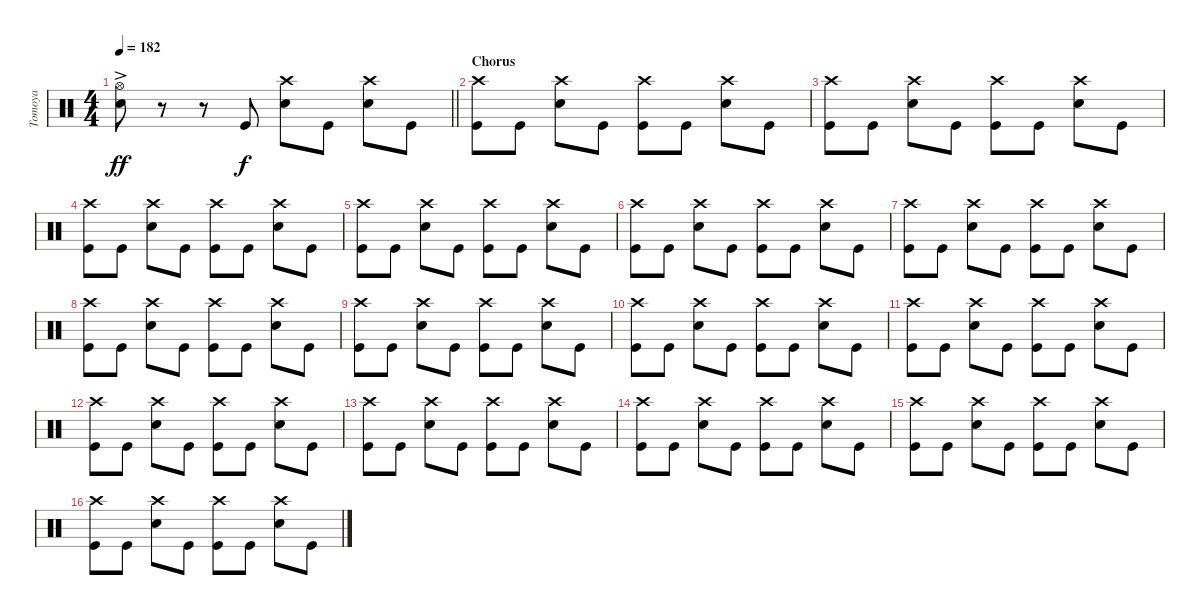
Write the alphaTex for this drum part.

\track ("Tomoya" "Tomoya") {instrument percussion}
\staff {score}
\articulation defaults
\ts (4 4)
\tempo 182
\clef neutral
\barLineRight lightlight
\ks c
("Hi-Hat (open)"{ac} "Snare (hit) 2").8{dy ff} r.8 r.8 "Kick (hit)".8{dy f} ("Crash high (hit)" "Snare (hit) 2").8 "Kick (hit)".8 ("Crash high (hit)" "Snare (hit) 2").8 "Kick (hit)".8 |
\section ("" "Chorus")
("Crash high (hit)" "Kick (hit)").8 "Kick (hit)".8 ("Crash high (hit)" "Snare (hit) 2").8 "Kick (hit)".8 ("Crash high (hit)" "Kick (hit)").8 "Kick (hit)".8 ("Crash high (hit)" "Snare (hit) 2").8 "Kick (hit)".8 |
("Crash high (hit)" "Kick (hit)").8 "Kick (hit)".8 ("Crash high (hit)" "Snare (hit) 2").8 "Kick (hit)".8 ("Crash high (hit)" "Kick (hit)").8 "Kick (hit)".8 ("Crash high (hit)" "Snare (hit) 2").8 "Kick (hit)".8 |
("Crash high (hit)" "Kick (hit)").8 "Kick (hit)".8 ("Crash high (hit)" "Snare (hit) 2").8 "Kick (hit)".8 ("Crash high (hit)" "Kick (hit)").8 "Kick (hit)".8 ("Crash high (hit)" "Snare (hit) 2").8 "Kick (hit)".8 |
("Crash high (hit)" "Kick (hit)").8 "Kick (hit)".8 ("Crash high (hit)" "Snare (hit) 2").8 "Kick (hit)".8 ("Crash high (hit)" "Kick (hit)").8 "Kick (hit)".8 ("Crash high (hit)" "Snare (hit) 2").8 "Kick (hit)".8 |
("Crash high (hit)" "Kick (hit)").8 "Kick (hit)".8 ("Crash high (hit)" "Snare (hit) 2").8 "Kick (hit)".8 ("Crash high (hit)" "Kick (hit)").8 "Kick (hit)".8 ("Crash high (hit)" "Snare (hit) 2").8 "Kick (hit)".8 |
("Crash high (hit)" "Kick (hit)").8 "Kick (hit)".8 ("Crash high (hit)" "Snare (hit) 2").8 "Kick (hit)".8 ("Crash high (hit)" "Kick (hit)").8 "Kick (hit)".8 ("Crash high (hit)" "Snare (hit) 2").8 "Kick (hit)".8 |
("Crash high (hit)" "Kick (hit)").8 "Kick (hit)".8 ("Crash high (hit)" "Snare (hit) 2").8 "Kick (hit)".8 ("Crash high (hit)" "Kick (hit)").8 "Kick (hit)".8 ("Crash high (hit)" "Snare (hit) 2").8 "Kick (hit)".8 |
("Crash high (hit)" "Kick (hit)").8 "Kick (hit)".8 ("Crash high (hit)" "Snare (hit) 2").8 "Kick (hit)".8 ("Crash high (hit)" "Kick (hit)").8 "Kick (hit)".8 ("Crash high (hit)" "Snare (hit) 2").8 "Kick (hit)".8 |
("Crash high (hit)" "Kick (hit)").8 "Kick (hit)".8 ("Crash high (hit)" "Snare (hit) 2").8 "Kick (hit)".8 ("Crash high (hit)" "Kick (hit)").8 "Kick (hit)".8 ("Crash high (hit)" "Snare (hit) 2").8 "Kick (hit)".8 |
("Crash high (hit)" "Kick (hit)").8 "Kick (hit)".8 ("Crash high (hit)" "Snare (hit) 2").8 "Kick (hit)".8 ("Crash high (hit)" "Kick (hit)").8 "Kick (hit)".8 ("Crash high (hit)" "Snare (hit) 2").8 "Kick (hit)".8 |
("Crash high (hit)" "Kick (hit)").8 "Kick (hit)".8 ("Crash high (hit)" "Snare (hit) 2").8 "Kick (hit)".8 ("Crash high (hit)" "Kick (hit)").8 "Kick (hit)".8 ("Crash high (hit)" "Snare (hit) 2").8 "Kick (hit)".8 |
("Crash high (hit)" "Kick (hit)").8 "Kick (hit)".8 ("Crash high (hit)" "Snare (hit) 2").8 "Kick (hit)".8 ("Crash high (hit)" "Kick (hit)").8 "Kick (hit)".8 ("Crash high (hit)" "Snare (hit) 2").8 "Kick (hit)".8 |
("Crash high (hit)" "Kick (hit)").8 "Kick (hit)".8 ("Crash high (hit)" "Snare (hit) 2").8 "Kick (hit)".8 ("Crash high (hit)" "Kick (hit)").8 "Kick (hit)".8 ("Crash high (hit)" "Snare (hit) 2").8 "Kick (hit)".8 |
("Crash high (hit)" "Kick (hit)").8 "Kick (hit)".8 ("Crash high (hit)" "Snare (hit) 2").8 "Kick (hit)".8 ("Crash high (hit)" "Kick (hit)").8 "Kick (hit)".8 ("Crash high (hit)" "Snare (hit) 2").8 "Kick (hit)".8 |
("Crash high (hit)" "Kick (hit)").8 "Kick (hit)".8 ("Crash high (hit)" "Snare (hit) 2").8 "Kick (hit)".8 ("Crash high (hit)" "Kick (hit)").8 "Kick (hit)".8 ("Crash high (hit)" "Snare (hit) 2").8 "Kick (hit)".8
